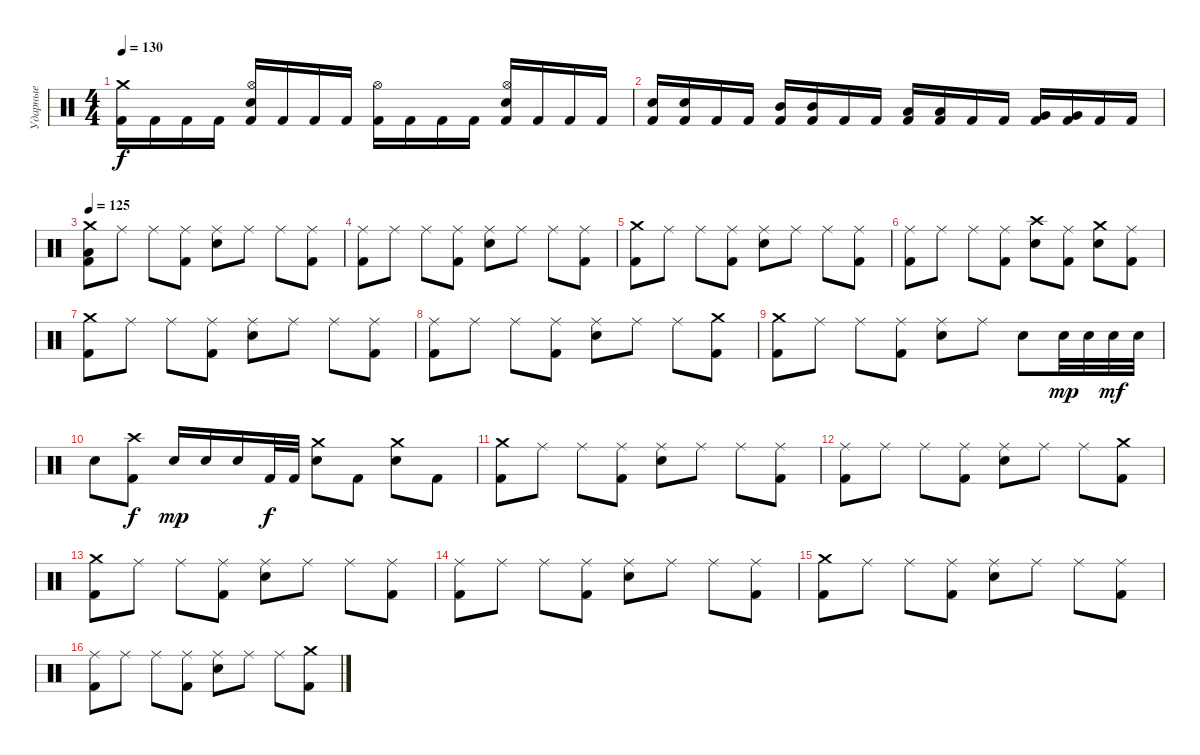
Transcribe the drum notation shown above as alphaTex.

\track ("Ударные" "Ударные") {instrument percussion}
\staff {score}
\articulation defaults
\ts (4 4)
\tempo 130
\clef neutral
\ks c
("Crash medium (hit)" "Kick (hit) 2").16{dy f} "Kick (hit) 2".16 "Kick (hit) 2".16 "Kick (hit) 2".16 ("Hi-Hat (open)" "Electric Snare (hit)" "Kick (hit) 2").16 "Kick (hit) 2".16 "Kick (hit) 2".16 "Kick (hit) 2".16 ("Hi-Hat (open)" "Kick (hit) 2").16 "Kick (hit) 2".16 "Kick (hit) 2".16 "Kick (hit) 2".16 ("Hi-Hat (open)" "Electric Snare (hit)" "Kick (hit) 2").16 "Kick (hit) 2".16 "Kick (hit) 2".16 "Kick (hit) 2".16 |
("Electric Snare (hit)" "Kick (hit) 2").16 ("Electric Snare (hit)" "Kick (hit) 2").16 "Kick (hit) 2".16 "Kick (hit) 2".16 ("Mid Tom (hit)" "Kick (hit) 2").16 ("Mid Tom (hit)" "Kick (hit) 2").16 "Kick (hit) 2".16 "Kick (hit) 2".16 ("Low Tom (hit)" "Kick (hit) 2").16 ("Low Tom (hit)" "Kick (hit) 2").16 "Kick (hit) 2".16 "Kick (hit) 2".16 ("Very Low Tom (hit)" "Kick (hit) 2").16 ("Very Low Tom (hit)" "Kick (hit) 2").16 "Kick (hit) 2".16 "Kick (hit) 2".16 |
\tempo 125
("Crash medium (hit)" "Low Floor Tom (hit)" "Kick (hit) 2").8 "Ride (middle)".8 "Ride (middle)".8 ("Ride (middle)" "Kick (hit) 2").8 ("Ride (middle)" "Electric Snare (hit)").8 "Ride (middle)".8 "Ride (middle)".8 ("Ride (middle)" "Kick (hit) 2").8 |
("Ride (middle)" "Kick (hit) 2").8 "Ride (middle)".8 "Ride (middle)".8 ("Ride (middle)" "Kick (hit) 2").8 ("Ride (middle)" "Electric Snare (hit)").8 "Ride (middle)".8 "Ride (middle)".8 ("Ride (middle)" "Kick (hit) 2").8 |
("Crash medium (hit)" "Kick (hit) 2").8 "Ride (middle)".8 "Ride (middle)".8 ("Ride (middle)" "Kick (hit) 2").8 ("Ride (middle)" "Electric Snare (hit)").8 "Ride (middle)".8 "Ride (middle)".8 ("Ride (middle)" "Kick (hit) 2").8 |
("Ride (middle)" "Kick (hit) 2").8 "Ride (middle)".8 "Ride (middle)".8 ("Ride (middle)" "Kick (hit) 2").8 ("Crash high (hit)" "Electric Snare (hit)").8 ("Ride (middle)" "Kick (hit) 2").8 ("Crash medium (hit)" "Electric Snare (hit)").8 ("Ride (middle)" "Kick (hit) 2").8 |
("Crash medium (hit)" "Kick (hit) 2").8 "Ride (middle)".8 "Ride (middle)".8 ("Ride (middle)" "Kick (hit) 2").8 ("Ride (middle)" "Electric Snare (hit)").8 "Ride (middle)".8 "Ride (middle)".8 ("Ride (middle)" "Kick (hit) 2").8 |
("Ride (middle)" "Kick (hit) 2").8 "Ride (middle)".8 "Ride (middle)".8 ("Ride (middle)" "Kick (hit) 2").8 ("Ride (middle)" "Electric Snare (hit)").8 "Ride (middle)".8 "Ride (middle)".8 ("Crash medium (hit)" "Kick (hit) 2").8 |
("Crash medium (hit)" "Kick (hit) 2").8 "Ride (middle)".8 "Ride (middle)".8 ("Ride (middle)" "Kick (hit) 2").8 ("Ride (middle)" "Electric Snare (hit)").8 "Ride (middle)".8 "Electric Snare (hit)".8 "Electric Snare (hit)".32{dy mp} "Electric Snare (hit)".32 "Electric Snare (hit)".32{dy mf} "Electric Snare (hit)".32 |
"Electric Snare (hit)".8 ("Crash high (hit)" "Kick (hit) 2").8{dy f} "Electric Snare (hit)".16{dy mp} "Electric Snare (hit)".16 "Electric Snare (hit)".16 "Kick (hit) 2".32{dy f} "Kick (hit) 2".32 ("Crash medium (hit)" "Electric Snare (hit)").8 "Kick (hit) 2".8 ("Crash medium (hit)" "Electric Snare (hit)").8 "Kick (hit) 2".8 |
("Crash medium (hit)" "Kick (hit) 2").8 "Ride (middle)".8 "Ride (middle)".8 ("Ride (middle)" "Kick (hit) 2").8 ("Ride (middle)" "Electric Snare (hit)").8 "Ride (middle)".8 "Ride (middle)".8 ("Ride (middle)" "Kick (hit) 2").8 |
("Ride (middle)" "Kick (hit) 2").8 "Ride (middle)".8 "Ride (middle)".8 ("Ride (middle)" "Kick (hit) 2").8 ("Ride (middle)" "Electric Snare (hit)").8 "Ride (middle)".8 "Ride (middle)".8 ("Crash medium (hit)" "Kick (hit) 2").8 |
("Crash medium (hit)" "Kick (hit) 2").8 "Ride (middle)".8 "Ride (middle)".8 ("Ride (middle)" "Kick (hit) 2").8 ("Ride (middle)" "Electric Snare (hit)").8 "Ride (middle)".8 "Ride (middle)".8 ("Ride (middle)" "Kick (hit) 2").8 |
("Ride (middle)" "Kick (hit) 2").8 "Ride (middle)".8 "Ride (middle)".8 ("Ride (middle)" "Kick (hit) 2").8 ("Ride (middle)" "Electric Snare (hit)").8 "Ride (middle)".8 "Ride (middle)".8 ("Ride (middle)" "Kick (hit) 2").8 |
("Crash medium (hit)" "Kick (hit) 2").8 "Ride (middle)".8 "Ride (middle)".8 ("Ride (middle)" "Kick (hit) 2").8 ("Ride (middle)" "Electric Snare (hit)").8 "Ride (middle)".8 "Ride (middle)".8 ("Ride (middle)" "Kick (hit) 2").8 |
("Ride (middle)" "Kick (hit) 2").8 "Ride (middle)".8 "Ride (middle)".8 ("Ride (middle)" "Kick (hit) 2").8 ("Ride (middle)" "Electric Snare (hit)").8 "Ride (middle)".8 "Ride (middle)".8 ("Crash medium (hit)" "Kick (hit) 2").8
